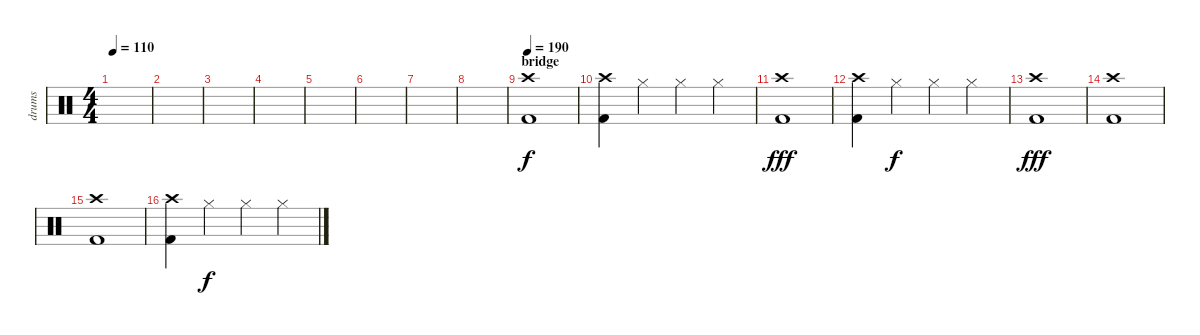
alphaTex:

\track ("drums" "drums") {instrument percussion}
\staff {score}
\articulation defaults
\ts (4 4)
\tempo 110
\clef neutral
\ks c
|
|
|
|
|
|
|
|
\section ("" "bridge")
\tempo 190
("Crash high (hit)" "Kick (hit) 2").1 |
("Crash high (hit)" "Kick (hit) 2").4 "Hi-Hat (closed)".4{dy f} "Hi-Hat (closed)".4 "Hi-Hat (closed)".4 |
("Crash high (hit)" "Kick (hit) 2").1{dy fff} |
("Crash high (hit)" "Kick (hit) 2").4 "Hi-Hat (closed)".4{dy f} "Hi-Hat (closed)".4 "Hi-Hat (closed)".4 |
("Crash high (hit)" "Kick (hit) 2").1{dy fff} |
("Crash high (hit)" "Kick (hit) 2").1 |
("Crash high (hit)" "Kick (hit) 2").1 |
("Crash high (hit)" "Kick (hit) 2").4 "Hi-Hat (closed)".4{dy f} "Hi-Hat (closed)".4 "Hi-Hat (closed)".4
